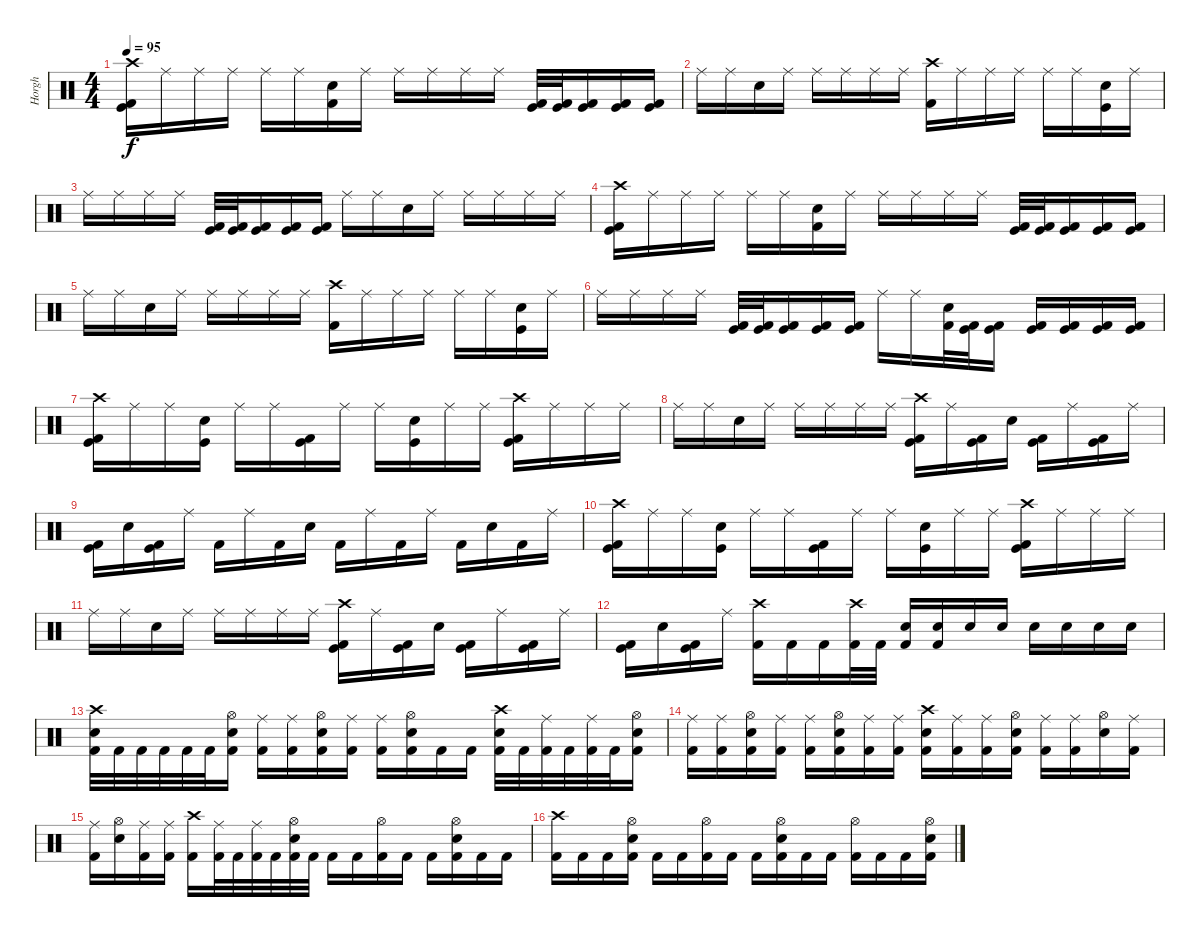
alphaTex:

\track ("Horgh" "Horgh") {instrument percussion}
\staff {score}
\articulation defaults
\ts (4 4)
\tempo 95
\clef neutral
\ks c
("Crash high (hit)" "Kick (hit)" "Kick (hit) 2").16{dy f} "Ride (middle)".16 "Ride (middle)".16 "Ride (middle)".16 "Ride (middle)".16 "Ride (middle)".16 ("Snare (hit) 2" "Kick (hit) 2").16 "Ride (middle)".16 "Ride (middle)".16 "Ride (middle)".16 "Ride (middle)".16 "Ride (middle)".16 ("Kick (hit)" "Kick (hit) 2").32 ("Kick (hit)" "Kick (hit) 2").32 ("Kick (hit)" "Kick (hit) 2").16 ("Kick (hit)" "Kick (hit) 2").16 ("Kick (hit)" "Kick (hit) 2").16 |
"Ride (middle)".16 "Ride (middle)".16 "Snare (hit) 2".16 "Ride (middle)".16 "Ride (middle)".16 "Ride (middle)".16 "Ride (middle)".16 "Ride (middle)".16 ("Crash high (hit)" "Kick (hit) 2").16 "Ride (middle)".16 "Ride (middle)".16 "Ride (middle)".16 "Ride (middle)".16 "Ride (middle)".16 ("Snare (hit) 2" "Kick (hit)").16 "Ride (middle)".16 |
"Ride (middle)".16 "Ride (middle)".16 "Ride (middle)".16 "Ride (middle)".16 ("Kick (hit)" "Kick (hit) 2").32 ("Kick (hit)" "Kick (hit) 2").32 ("Kick (hit)" "Kick (hit) 2").16 ("Kick (hit)" "Kick (hit) 2").16 ("Kick (hit)" "Kick (hit) 2").16 "Ride (middle)".16 "Ride (middle)".16 "Snare (hit) 2".16 "Ride (middle)".16 "Ride (middle)".16 "Ride (middle)".16 "Ride (middle)".16 "Ride (middle)".16 |
("Crash high (hit)" "Kick (hit)" "Kick (hit) 2").16 "Ride (middle)".16 "Ride (middle)".16 "Ride (middle)".16 "Ride (middle)".16 "Ride (middle)".16 ("Snare (hit) 2" "Kick (hit) 2").16 "Ride (middle)".16 "Ride (middle)".16 "Ride (middle)".16 "Ride (middle)".16 "Ride (middle)".16 ("Kick (hit)" "Kick (hit) 2").32 ("Kick (hit)" "Kick (hit) 2").32 ("Kick (hit)" "Kick (hit) 2").16 ("Kick (hit)" "Kick (hit) 2").16 ("Kick (hit)" "Kick (hit) 2").16 |
"Ride (middle)".16 "Ride (middle)".16 "Snare (hit) 2".16 "Ride (middle)".16 "Ride (middle)".16 "Ride (middle)".16 "Ride (middle)".16 "Ride (middle)".16 ("Crash high (hit)" "Kick (hit) 2").16 "Ride (middle)".16 "Ride (middle)".16 "Ride (middle)".16 "Ride (middle)".16 "Ride (middle)".16 ("Snare (hit) 2" "Kick (hit)").16 "Ride (middle)".16 |
"Ride (middle)".16 "Ride (middle)".16 "Ride (middle)".16 "Ride (middle)".16 ("Kick (hit)" "Kick (hit) 2").32 ("Kick (hit)" "Kick (hit) 2").32 ("Kick (hit)" "Kick (hit) 2").16 ("Kick (hit)" "Kick (hit) 2").16 ("Kick (hit)" "Kick (hit) 2").16 "Ride (middle)".16 "Ride (middle)".16 ("Snare (hit) 2" "Kick (hit) 2").32 ("Kick (hit)" "Kick (hit) 2").32 ("Kick (hit)" "Kick (hit) 2").16 ("Kick (hit)" "Kick (hit) 2").16 ("Kick (hit)" "Kick (hit) 2").16 ("Kick (hit)" "Kick (hit) 2").16 ("Kick (hit)" "Kick (hit) 2").16 |
("Crash high (hit)" "Kick (hit)" "Kick (hit) 2").16 "Ride (middle)".16 "Ride (middle)".16 ("Snare (hit) 2" "Kick (hit)").16 "Ride (middle)".16 "Ride (middle)".16 ("Kick (hit)" "Kick (hit) 2").16 "Ride (middle)".16 "Ride (middle)".16 ("Snare (hit) 2" "Kick (hit)").16 "Ride (middle)".16 "Ride (middle)".16 ("Crash high (hit)" "Kick (hit)" "Kick (hit) 2").16 "Ride (middle)".16 "Ride (middle)".16 "Ride (middle)".16 |
"Ride (middle)".16 "Ride (middle)".16 "Snare (hit) 2".16 "Ride (middle)".16 "Ride (middle)".16 "Ride (middle)".16 "Ride (middle)".16 "Ride (middle)".16 ("Crash high (hit)" "Kick (hit)" "Kick (hit) 2").16 "Ride (middle)".16 ("Kick (hit)" "Kick (hit) 2").16 "Snare (hit) 2".16 ("Kick (hit)" "Kick (hit) 2").16 "Ride (middle)".16 ("Kick (hit)" "Kick (hit) 2").16 "Ride (middle)".16 |
("Kick (hit)" "Kick (hit) 2").16 "Snare (hit) 2".16 ("Kick (hit)" "Kick (hit) 2").16 "Ride (middle)".16 "Kick (hit) 2".16 "Ride (middle)".16 "Kick (hit) 2".16 "Snare (hit) 2".16 "Kick (hit) 2".16 "Ride (middle)".16 "Kick (hit) 2".16 "Ride (middle)".16 "Kick (hit) 2".16 "Snare (hit) 2".16 "Kick (hit) 2".16 "Ride (middle)".16 |
("Crash high (hit)" "Kick (hit)" "Kick (hit) 2").16 "Ride (middle)".16 "Ride (middle)".16 ("Snare (hit) 2" "Kick (hit)").16 "Ride (middle)".16 "Ride (middle)".16 ("Kick (hit)" "Kick (hit) 2").16 "Ride (middle)".16 "Ride (middle)".16 ("Snare (hit) 2" "Kick (hit)").16 "Ride (middle)".16 "Ride (middle)".16 ("Crash high (hit)" "Kick (hit)" "Kick (hit) 2").16 "Ride (middle)".16 "Ride (middle)".16 "Ride (middle)".16 |
"Ride (middle)".16 "Ride (middle)".16 "Snare (hit) 2".16 "Ride (middle)".16 "Ride (middle)".16 "Ride (middle)".16 "Ride (middle)".16 "Ride (middle)".16 ("Crash high (hit)" "Kick (hit)" "Kick (hit) 2").16 "Ride (middle)".16 ("Kick (hit)" "Kick (hit) 2").16 "Snare (hit) 2".16 ("Kick (hit)" "Kick (hit) 2").16 "Ride (middle)".16 ("Kick (hit)" "Kick (hit) 2").16 "Ride (middle)".16 |
("Kick (hit)" "Kick (hit) 2").16 "Snare (hit) 2".16 ("Kick (hit)" "Kick (hit) 2").16 "Ride (middle)".16 ("Crash high (hit)" "Kick (hit) 2").16 "Kick (hit) 2".16 "Kick (hit) 2".16 ("Crash high (hit)" "Kick (hit) 2").32 "Kick (hit) 2".32 ("Snare (hit) 2" "Kick (hit) 2").16 ("Snare (hit) 2" "Kick (hit) 2").16 "Snare (hit) 2".16 "Snare (hit) 2".16 "Snare (hit) 2".16 "Snare (hit) 2".16 "Snare (hit) 2".16 "Snare (hit) 2".16 |
("Crash high (hit)" "Snare (hit) 2" "Kick (hit) 2").32 "Kick (hit) 2".32 "Kick (hit) 2".32 "Kick (hit) 2".32 "Kick (hit) 2".32 "Kick (hit) 2".32 ("Hi-Hat (open)" "Snare (hit) 2" "Kick (hit) 2").16 ("Ride (middle)" "Kick (hit) 2").16 ("Ride (middle)" "Kick (hit) 2").16 ("Hi-Hat (open)" "Snare (hit) 2" "Kick (hit) 2").16 ("Ride (middle)" "Kick (hit) 2").16 ("Ride (middle)" "Kick (hit) 2").16 ("Hi-Hat (open)" "Snare (hit) 2" "Kick (hit) 2").16 "Kick (hit) 2".16 "Kick (hit) 2".16 ("Crash high (hit)" "Snare (hit) 2" "Kick (hit) 2").32 "Kick (hit) 2".32 ("Ride (middle)" "Kick (hit) 2").32 "Kick (hit) 2".32 ("Ride (middle)" "Kick (hit) 2").32 "Kick (hit) 2".32 ("Hi-Hat (open)" "Snare (hit) 2" "Kick (hit) 2").16 |
("Ride (middle)" "Kick (hit) 2").16 ("Ride (middle)" "Kick (hit) 2").16 ("Hi-Hat (open)" "Snare (hit) 2" "Kick (hit) 2").16 ("Ride (middle)" "Kick (hit) 2").16 ("Ride (middle)" "Kick (hit) 2").16 ("Hi-Hat (open)" "Snare (hit) 2" "Kick (hit) 2").16 ("Ride (middle)" "Kick (hit) 2").16 ("Ride (middle)" "Kick (hit) 2").16 ("Crash high (hit)" "Snare (hit) 2" "Kick (hit) 2").16 ("Ride (middle)" "Kick (hit) 2").16 ("Ride (middle)" "Kick (hit) 2").16 ("Hi-Hat (open)" "Snare (hit) 2" "Kick (hit) 2").16 ("Ride (middle)" "Kick (hit) 2").16 ("Ride (middle)" "Kick (hit) 2").16 ("Hi-Hat (open)" "Snare (hit) 2").16 ("Ride (middle)" "Kick (hit) 2").16 |
("Ride (middle)" "Kick (hit) 2").16 ("Hi-Hat (open)" "Snare (hit) 2").16 ("Ride (middle)" "Kick (hit) 2").16 ("Ride (middle)" "Kick (hit) 2").16 ("Crash high (hit)" "Kick (hit) 2").16 ("Ride (middle)" "Kick (hit) 2").32 "Kick (hit) 2".32 ("Ride (middle)" "Kick (hit) 2").32 "Kick (hit) 2".32 ("Hi-Hat (open)" "Snare (hit) 2" "Kick (hit) 2").32 "Kick (hit) 2".32 "Kick (hit) 2".16 "Kick (hit) 2".16 ("Hi-Hat (open)" "Kick (hit) 2").16 "Kick (hit) 2".16 "Kick (hit) 2".16 ("Hi-Hat (open)" "Snare (hit) 2" "Kick (hit) 2").16 "Kick (hit) 2".16 "Kick (hit) 2".16 |
("Crash high (hit)" "Kick (hit) 2").16 "Kick (hit) 2".16 "Kick (hit) 2".16 ("Hi-Hat (open)" "Snare (hit) 2" "Kick (hit) 2").16 "Kick (hit) 2".16 "Kick (hit) 2".16 ("Hi-Hat (open)" "Kick (hit) 2").16 "Kick (hit) 2".16 "Kick (hit) 2".16 ("Hi-Hat (open)" "Snare (hit) 2" "Kick (hit) 2").16 "Kick (hit) 2".16 "Kick (hit) 2".16 ("Hi-Hat (open)" "Kick (hit) 2").16 "Kick (hit) 2".16 "Kick (hit) 2".16 ("Hi-Hat (open)" "Snare (hit) 2" "Kick (hit) 2").16
